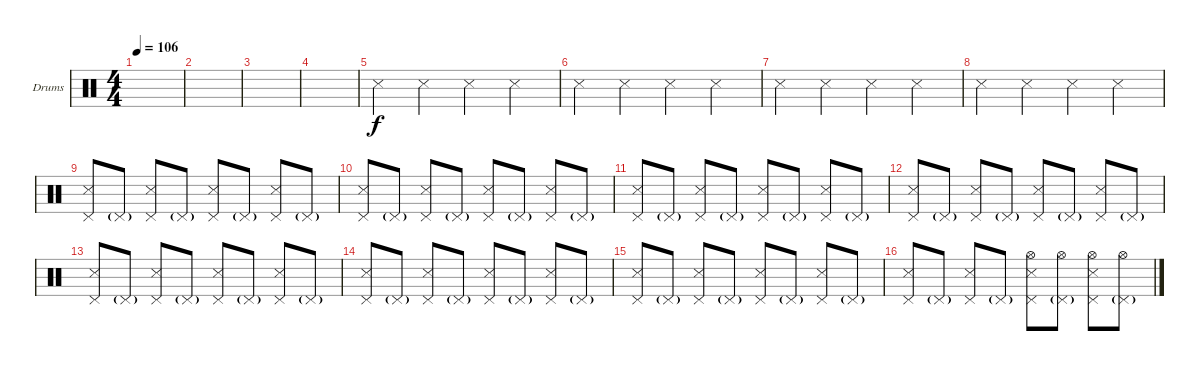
\defaultSystemsLayout 4
\bracketExtendMode groupsimilarinstruments
\firstSystemTrackNameOrientation horizontal
\otherSystemsTrackNameOrientation horizontal
\track ("Drumkit" "Drums") {instrument percussion}
\staff {score}
\articulation defaults
\ts (4 4)
\tempo 106
\clef neutral
\scale
0.474178
\ks c
|
\scale
0.262911 |
\scale
0.262911 |
|
"Snare (side stick) 3".4 "Snare (side stick) 3".4 "Snare (side stick) 3".4 "Snare (side stick) 3".4 |
"Snare (side stick) 3".4 "Snare (side stick) 3".4 "Snare (side stick) 3".4 "Snare (side stick) 3".4 |
"Snare (side stick) 3".4 "Snare (side stick) 3".4 "Snare (side stick) 3".4 "Snare (side stick) 3".4 |
"Snare (side stick) 3".4 "Snare (side stick) 3".4 "Snare (side stick) 3".4 "Snare (side stick) 3".4 |
("Snare (side stick) 3" "Pedal Hi-Hat (hit)").8 "Pedal Hi-Hat (hit)"{g}.8 ("Snare (side stick) 3" "Pedal Hi-Hat (hit)").8 "Pedal Hi-Hat (hit)"{g}.8 ("Snare (side stick) 3" "Pedal Hi-Hat (hit)").8 "Pedal Hi-Hat (hit)"{g}.8 ("Snare (side stick) 3" "Pedal Hi-Hat (hit)").8 "Pedal Hi-Hat (hit)"{g}.8 |
("Snare (side stick) 3" "Pedal Hi-Hat (hit)").8 "Pedal Hi-Hat (hit)"{g}.8 ("Snare (side stick) 3" "Pedal Hi-Hat (hit)").8 "Pedal Hi-Hat (hit)"{g}.8 ("Snare (side stick) 3" "Pedal Hi-Hat (hit)").8 "Pedal Hi-Hat (hit)"{g}.8 ("Snare (side stick) 3" "Pedal Hi-Hat (hit)").8 "Pedal Hi-Hat (hit)"{g}.8 |
("Snare (side stick) 3" "Pedal Hi-Hat (hit)").8 "Pedal Hi-Hat (hit)"{g}.8 ("Snare (side stick) 3" "Pedal Hi-Hat (hit)").8 "Pedal Hi-Hat (hit)"{g}.8 ("Snare (side stick) 3" "Pedal Hi-Hat (hit)").8 "Pedal Hi-Hat (hit)"{g}.8 ("Snare (side stick) 3" "Pedal Hi-Hat (hit)").8 "Pedal Hi-Hat (hit)"{g}.8 |
("Snare (side stick) 3" "Pedal Hi-Hat (hit)").8 "Pedal Hi-Hat (hit)"{g}.8 ("Snare (side stick) 3" "Pedal Hi-Hat (hit)").8 "Pedal Hi-Hat (hit)"{g}.8 ("Snare (side stick) 3" "Pedal Hi-Hat (hit)").8 "Pedal Hi-Hat (hit)"{g}.8 ("Snare (side stick) 3" "Pedal Hi-Hat (hit)").8 "Pedal Hi-Hat (hit)"{g}.8 |
("Snare (side stick) 3" "Pedal Hi-Hat (hit)").8 "Pedal Hi-Hat (hit)"{g}.8 ("Snare (side stick) 3" "Pedal Hi-Hat (hit)").8 "Pedal Hi-Hat (hit)"{g}.8 ("Snare (side stick) 3" "Pedal Hi-Hat (hit)").8 "Pedal Hi-Hat (hit)"{g}.8 ("Snare (side stick) 3" "Pedal Hi-Hat (hit)").8 "Pedal Hi-Hat (hit)"{g}.8 |
("Snare (side stick) 3" "Pedal Hi-Hat (hit)").8 "Pedal Hi-Hat (hit)"{g}.8 ("Snare (side stick) 3" "Pedal Hi-Hat (hit)").8 "Pedal Hi-Hat (hit)"{g}.8 ("Snare (side stick) 3" "Pedal Hi-Hat (hit)").8 "Pedal Hi-Hat (hit)"{g}.8 ("Snare (side stick) 3" "Pedal Hi-Hat (hit)").8 "Pedal Hi-Hat (hit)"{g}.8 |
("Snare (side stick) 3" "Pedal Hi-Hat (hit)").8 "Pedal Hi-Hat (hit)"{g}.8 ("Snare (side stick) 3" "Pedal Hi-Hat (hit)").8 "Pedal Hi-Hat (hit)"{g}.8 ("Snare (side stick) 3" "Pedal Hi-Hat (hit)").8 "Pedal Hi-Hat (hit)"{g}.8 ("Snare (side stick) 3" "Pedal Hi-Hat (hit)").8 "Pedal Hi-Hat (hit)"{g}.8 |
("Snare (side stick) 3" "Pedal Hi-Hat (hit)").8 "Pedal Hi-Hat (hit)"{g}.8 ("Snare (side stick) 3" "Pedal Hi-Hat (hit)").8 "Pedal Hi-Hat (hit)"{g}.8 ("Snare (side stick) 3" "Pedal Hi-Hat (hit)" "Hi-Hat (open)").8 ("Pedal Hi-Hat (hit)"{g} "Hi-Hat (open)").8 ("Snare (side stick) 3" "Pedal Hi-Hat (hit)" "Hi-Hat (open)").8 ("Pedal Hi-Hat (hit)"{g} "Hi-Hat (open)").8
